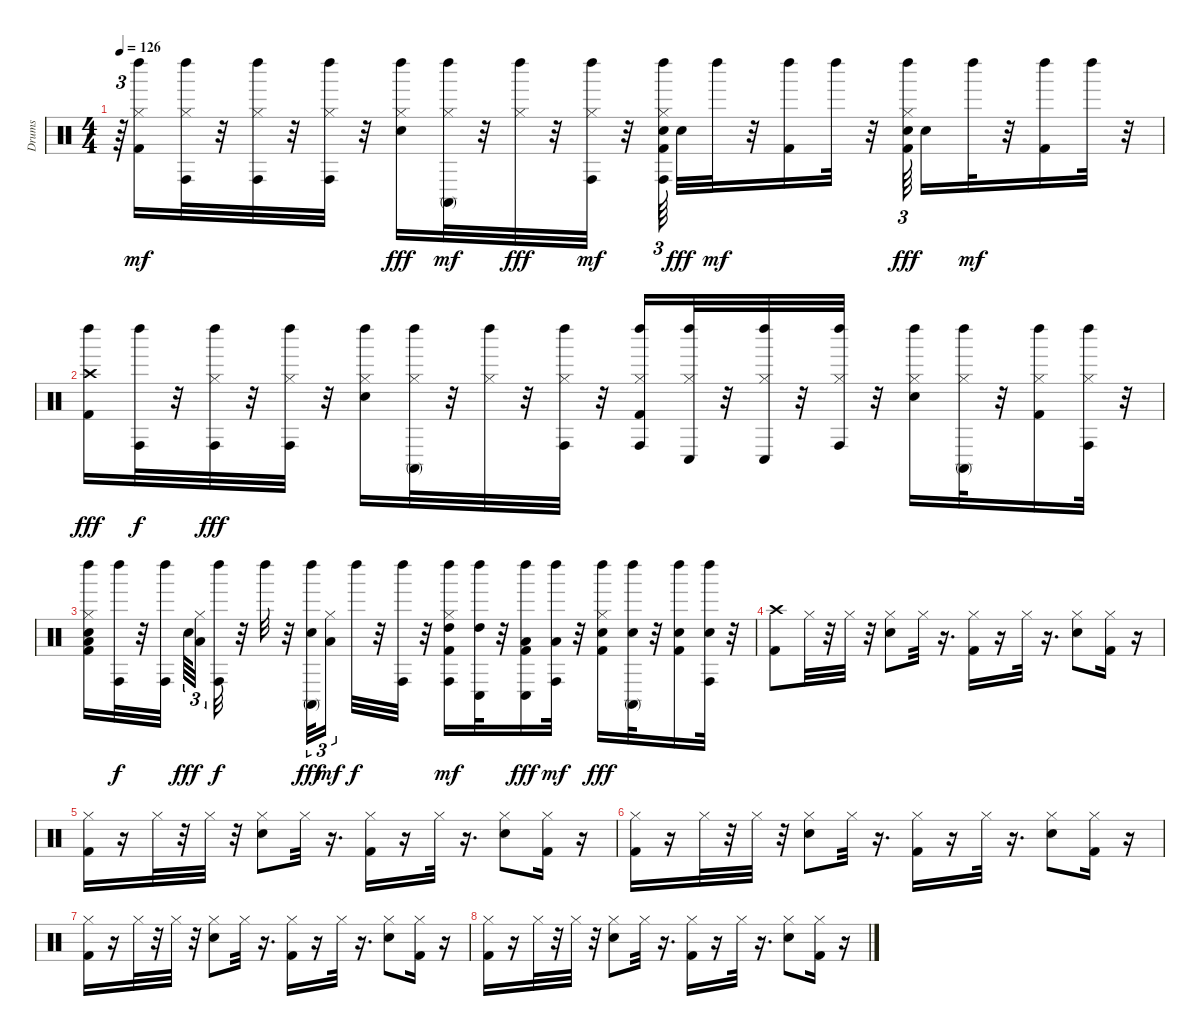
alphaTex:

\track ("Drums" "Drums") {instrument percussion}
\staff {score}
\articulation defaults
\ts (4 4)
\tempo 126
\clef neutral
\ks c
r.64{tu (3 2) dy fff} ("Hi-Hat (closed)" "Kick (hit) 2" "Left Maraca (hit)").16{dy mf} ("Hi-Hat (closed)" "Left Maraca (hit)" "Conga high (hit)").32 r.32 ("Hi-Hat (closed)" "Conga high (hit)" "Left Maraca (hit)").32 r.32 ("Hi-Hat (closed)" "Conga high (hit)" "Left Maraca (hit)").32 r.32 ("Left Maraca (hit)" "Hi-Hat (closed)" "Snare (hit) 2").16{dy fff} ("Hi-Hat (closed)" "Left Maraca (hit)" "Conga high (mute)").32{dy mf} r.32 ("Left Maraca (hit)" "Hi-Hat (closed)").32{dy fff} r.32 ("Hi-Hat (closed)" "Left Maraca (hit)" "Conga high (hit)").32{dy mf} r.32 ("Kick (hit) 2" "Conga high (hit)" "Hi-Hat (closed)" "Snare (hit) 2" "Left Maraca (hit)").64{tu (3 2)} "Snare (hit) 2".32{dy fff} "Left Maraca (hit)".32{dy mf} r.32 ("Left Maraca (hit)" "Kick (hit) 2").16 "Left Maraca (hit)".32 r.32 ("Snare (hit) 2" "Left Maraca (hit)" "Hi-Hat (closed)" "Kick (hit) 2").64{tu (3 2) dy fff} "Snare (hit) 2".16 "Left Maraca (hit)".32{dy mf} r.32 ("Left Maraca (hit)" "Kick (hit) 2").16 "Left Maraca (hit)".32 r.32 |
("Crash high (hit)" "Kick (hit) 2" "Left Maraca (hit)").16{dy fff} ("Conga high (hit)" "Left Maraca (hit)").32{dy f} r.32 ("Hi-Hat (closed)" "Left Maraca (hit)" "Conga high (hit)").32{dy fff} r.32 ("Hi-Hat (closed)" "Conga high (hit)" "Left Maraca (hit)").32 r.32 ("Hi-Hat (closed)" "Snare (hit) 2" "Left Maraca (hit)").16 ("Left Maraca (hit)" "Hi-Hat (closed)" "Conga high (mute)").32 r.32 ("Left Maraca (hit)" "Hi-Hat (closed)").32 r.32 ("Conga high (hit)" "Left Maraca (hit)" "Hi-Hat (closed)").32 r.32 ("Hi-Hat (closed)" "Conga high (hit)" "Left Maraca (hit)" "Kick (hit) 2").16 ("Conga low (hit)" "Hi-Hat (closed)" "Left Maraca (hit)").32 r.32 ("Conga low (hit)" "Hi-Hat (closed)" "Left Maraca (hit)").32 r.32 ("Left Maraca (hit)" "Hi-Hat (closed)" "Conga high (hit)").32 r.32 ("Left Maraca (hit)" "Hi-Hat (closed)" "Snare (hit) 2").16 ("Hi-Hat (closed)" "Conga high (mute)" "Left Maraca (hit)").32 r.32 ("Hi-Hat (closed)" "Kick (hit) 2" "Left Maraca (hit)").16 ("Left Maraca (hit)" "Conga high (hit)" "Hi-Hat (closed)").32 r.32 |
("Low Floor Tom (hit)" "Snare (hit) 2" "Kick (hit) 2" "Left Maraca (hit)" "Hi-Hat (closed)").16 ("Left Maraca (hit)" "Conga high (hit)").32{dy f} r.32 ("Left Maraca (hit)" "Conga high (hit)").32 "Snare (hit) 2".64{tu (3 2) dy fff} ("Low Floor Tom (hit)" "Hi-Hat (closed)").32{tu (3 2)} ("Conga high (hit)" "Left Maraca (hit)").32{dy f} r.32 "Left Maraca (hit)".32 r.32 ("Conga high (mute)" "Snare (hit) 2" "Left Maraca (hit)").32{tu (3 2) dy fff} ("Hi-Hat (closed)" "Low Floor Tom (hit)").16{tu (3 2) dy mf} "Left Maraca (hit)".32{dy f} r.32 ("Conga high (hit)" "Left Maraca (hit)").32 r.32 ("Left Maraca (hit)" "Conga high (hit)" "Hi-Hat (closed)" "Kick (hit) 2" "High Tom (hit)").16{dy mf} ("High Tom (hit)" "Conga low (hit)" "Left Maraca (hit)").32 r.32 ("Low Tom (hit)" "Left Maraca (hit)" "Conga low (hit)" "Kick (hit) 2").16{dy fff} ("Conga high (hit)" "Left Maraca (hit)" "Low Tom (hit)").32{dy mf} r.32 ("Hi-Hat (closed)" "Left Maraca (hit)" "Snare (hit) 2" "Kick (hit) 2").16{dy fff} ("Conga high (mute)" "Snare (hit) 2" "Left Maraca (hit)").32 r.32 ("Left Maraca (hit)" "Snare (hit) 2" "Kick (hit) 2").16 ("Snare (hit) 2" "Left Maraca (hit)" "Conga high (hit)").32 r.32 |
("Kick (hit) 2" "Crash high (hit)").8 "Hi-Hat (closed)".32 r.32 "Hi-Hat (closed)".32 r.32 ("Snare (hit) 2" "Hi-Hat (closed)").8 "Hi-Hat (closed)".32 r.16{d} ("Kick (hit) 2" "Hi-Hat (closed)").16 r.16 "Hi-Hat (closed)".32 r.16{d} ("Snare (hit) 2" "Hi-Hat (closed)").8 ("Kick (hit) 2" "Hi-Hat (closed)").16 r.16 |
("Kick (hit) 2" "Hi-Hat (closed)").16 r.16 "Hi-Hat (closed)".32 r.32 "Hi-Hat (closed)".32 r.32 ("Snare (hit) 2" "Hi-Hat (closed)").8 "Hi-Hat (closed)".32 r.16{d} ("Kick (hit) 2" "Hi-Hat (closed)").16 r.16 "Hi-Hat (closed)".32 r.16{d} ("Snare (hit) 2" "Hi-Hat (closed)").8 ("Hi-Hat (closed)" "Kick (hit) 2").16 r.16 |
("Hi-Hat (closed)" "Kick (hit) 2").16 r.16 "Hi-Hat (closed)".32 r.32 "Hi-Hat (closed)".32 r.32 ("Hi-Hat (closed)" "Snare (hit) 2").8 "Hi-Hat (closed)".32 r.16{d} ("Hi-Hat (closed)" "Kick (hit) 2").16 r.16 "Hi-Hat (closed)".32 r.16{d} ("Hi-Hat (closed)" "Snare (hit) 2").8 ("Hi-Hat (closed)" "Kick (hit) 2").16 r.16 |
("Hi-Hat (closed)" "Kick (hit) 2").16 r.16 "Hi-Hat (closed)".32 r.32 "Hi-Hat (closed)".32 r.32 ("Hi-Hat (closed)" "Snare (hit) 2").8 "Hi-Hat (closed)".32 r.16{d} ("Hi-Hat (closed)" "Kick (hit) 2").16 r.16 "Hi-Hat (closed)".32 r.16{d} ("Snare (hit) 2" "Hi-Hat (closed)").8 ("Hi-Hat (closed)" "Kick (hit) 2").16 r.16 |
("Kick (hit) 2" "Hi-Hat (closed)").16 r.16 "Hi-Hat (closed)".32 r.32 "Hi-Hat (closed)".32 r.32 ("Hi-Hat (closed)" "Snare (hit) 2").8 "Hi-Hat (closed)".32 r.16{d} ("Hi-Hat (closed)" "Kick (hit) 2").16 r.16 "Hi-Hat (closed)".32 r.16{d} ("Snare (hit) 2" "Hi-Hat (closed)").8 ("Kick (hit) 2" "Hi-Hat (closed)").16 r.16
